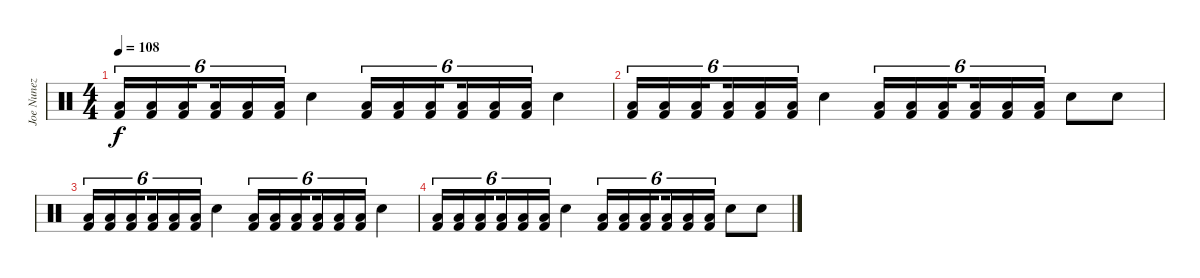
\track ("Joe Nunez (Drums)" "Joe Nunez ") {instrument percussion}
\staff {score}
\articulation defaults
\ts (4 4)
\tempo 108
\clef neutral
\ks c
("Low Floor Tom (hit)" "Kick (hit) 2").16{tu (6 4) dy f} ("Low Floor Tom (hit)" "Kick (hit) 2").16{tu (6 4)} ("Low Floor Tom (hit)" "Kick (hit) 2").16{tu (6 4) beam splitsecondary} ("Low Floor Tom (hit)" "Kick (hit) 2").16{tu (6 4)} ("Low Floor Tom (hit)" "Kick (hit) 2").16{tu (6 4)} ("Low Floor Tom (hit)" "Kick (hit) 2").16{tu (6 4)} "Snare (hit) 2".4 ("Low Floor Tom (hit)" "Kick (hit) 2").16{tu (6 4)} ("Low Floor Tom (hit)" "Kick (hit) 2").16{tu (6 4)} ("Low Floor Tom (hit)" "Kick (hit) 2").16{tu (6 4) beam splitsecondary} ("Low Floor Tom (hit)" "Kick (hit) 2").16{tu (6 4)} ("Low Floor Tom (hit)" "Kick (hit) 2").16{tu (6 4)} ("Low Floor Tom (hit)" "Kick (hit) 2").16{tu (6 4)} "Snare (hit) 2".4 |
("Low Floor Tom (hit)" "Kick (hit) 2").16{tu (6 4)} ("Low Floor Tom (hit)" "Kick (hit) 2").16{tu (6 4)} ("Low Floor Tom (hit)" "Kick (hit) 2").16{tu (6 4) beam splitsecondary} ("Low Floor Tom (hit)" "Kick (hit) 2").16{tu (6 4)} ("Low Floor Tom (hit)" "Kick (hit) 2").16{tu (6 4)} ("Low Floor Tom (hit)" "Kick (hit) 2").16{tu (6 4)} "Snare (hit) 2".4 ("Low Floor Tom (hit)" "Kick (hit) 2").16{tu (6 4)} ("Low Floor Tom (hit)" "Kick (hit) 2").16{tu (6 4)} ("Low Floor Tom (hit)" "Kick (hit) 2").16{tu (6 4) beam splitsecondary} ("Low Floor Tom (hit)" "Kick (hit) 2").16{tu (6 4)} ("Low Floor Tom (hit)" "Kick (hit) 2").16{tu (6 4)} ("Low Floor Tom (hit)" "Kick (hit) 2").16{tu (6 4)} "Snare (hit) 2".8 "Snare (hit) 2".8 |
("Low Floor Tom (hit)" "Kick (hit) 2").16{tu (6 4)} ("Low Floor Tom (hit)" "Kick (hit) 2").16{tu (6 4)} ("Low Floor Tom (hit)" "Kick (hit) 2").16{tu (6 4) beam splitsecondary} ("Low Floor Tom (hit)" "Kick (hit) 2").16{tu (6 4)} ("Low Floor Tom (hit)" "Kick (hit) 2").16{tu (6 4)} ("Low Floor Tom (hit)" "Kick (hit) 2").16{tu (6 4)} "Snare (hit) 2".4 ("Low Floor Tom (hit)" "Kick (hit) 2").16{tu (6 4)} ("Low Floor Tom (hit)" "Kick (hit) 2").16{tu (6 4)} ("Low Floor Tom (hit)" "Kick (hit) 2").16{tu (6 4) beam splitsecondary} ("Low Floor Tom (hit)" "Kick (hit) 2").16{tu (6 4)} ("Low Floor Tom (hit)" "Kick (hit) 2").16{tu (6 4)} ("Low Floor Tom (hit)" "Kick (hit) 2").16{tu (6 4)} "Snare (hit) 2".4 |
("Low Floor Tom (hit)" "Kick (hit) 2").16{tu (6 4)} ("Low Floor Tom (hit)" "Kick (hit) 2").16{tu (6 4)} ("Low Floor Tom (hit)" "Kick (hit) 2").16{tu (6 4) beam splitsecondary} ("Low Floor Tom (hit)" "Kick (hit) 2").16{tu (6 4)} ("Low Floor Tom (hit)" "Kick (hit) 2").16{tu (6 4)} ("Low Floor Tom (hit)" "Kick (hit) 2").16{tu (6 4)} "Snare (hit) 2".4 ("Low Floor Tom (hit)" "Kick (hit) 2").16{tu (6 4)} ("Low Floor Tom (hit)" "Kick (hit) 2").16{tu (6 4)} ("Low Floor Tom (hit)" "Kick (hit) 2").16{tu (6 4) beam splitsecondary} ("Low Floor Tom (hit)" "Kick (hit) 2").16{tu (6 4)} ("Low Floor Tom (hit)" "Kick (hit) 2").16{tu (6 4)} ("Low Floor Tom (hit)" "Kick (hit) 2").16{tu (6 4)} "Snare (hit) 2".8 "Snare (hit) 2".8
